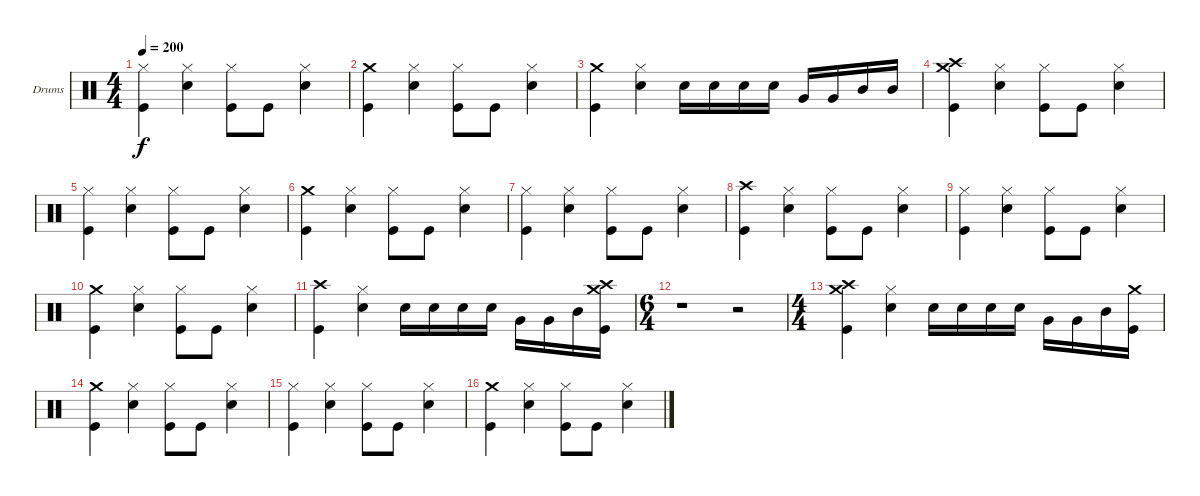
\bracketExtendMode groupsimilarinstruments
\firstSystemTrackNameOrientation horizontal
\otherSystemsTrackNameOrientation horizontal
\track ("Drumkit" "Drums") {instrument percussion}
\staff {score}
\articulation defaults
\ts (4 4)
\tempo 200
\clef neutral
\ks c
("Hi-Hat (closed)" "Kick (hit)").4{dy f} ("Hi-Hat (closed)" "Snare (hit) 2").4 ("Hi-Hat (closed)" "Kick (hit)").8 "Kick (hit)".8 ("Hi-Hat (closed)" "Snare (hit) 2").4 |
("Crash medium (hit)" "Kick (hit)").4 ("Hi-Hat (closed)" "Snare (hit) 2").4 ("Hi-Hat (closed)" "Kick (hit)").8 "Kick (hit)".8 ("Hi-Hat (closed)" "Snare (hit) 2").4 |
("Crash medium (hit)" "Kick (hit)").4 ("Hi-Hat (closed)" "Snare (hit) 2").4 "Snare (hit) 2".16 "Snare (hit) 2".16 "Snare (hit) 2".16 "Snare (hit) 2".16 "Very Low Tom (hit)".16 "Very Low Tom (hit)".16 "Mid Tom (hit)".16 "Mid Tom (hit)".16 |
("Crash high (hit)" "Crash medium (hit)" "Kick (hit)").4 ("Hi-Hat (closed)" "Snare (hit) 2").4 ("Hi-Hat (closed)" "Kick (hit)").8 "Kick (hit)".8 ("Hi-Hat (closed)" "Snare (hit) 2").4 |
("Hi-Hat (closed)" "Kick (hit)").4 ("Hi-Hat (closed)" "Snare (hit) 2").4 ("Hi-Hat (closed)" "Kick (hit)").8 "Kick (hit)".8 ("Hi-Hat (closed)" "Snare (hit) 2").4 |
("Crash medium (hit)" "Kick (hit)").4 ("Hi-Hat (closed)" "Snare (hit) 2").4 ("Hi-Hat (closed)" "Kick (hit)").8 "Kick (hit)".8 ("Hi-Hat (closed)" "Snare (hit) 2").4 |
("Hi-Hat (closed)" "Kick (hit)").4 ("Hi-Hat (closed)" "Snare (hit) 2").4 ("Hi-Hat (closed)" "Kick (hit)").8 "Kick (hit)".8 ("Hi-Hat (closed)" "Snare (hit) 2").4 |
("Crash high (hit)" "Kick (hit)").4 ("Hi-Hat (closed)" "Snare (hit) 2").4 ("Hi-Hat (closed)" "Kick (hit)").8 "Kick (hit)".8 ("Hi-Hat (closed)" "Snare (hit) 2").4 |
("Hi-Hat (closed)" "Kick (hit)").4 ("Hi-Hat (closed)" "Snare (hit) 2").4 ("Hi-Hat (closed)" "Kick (hit)").8 "Kick (hit)".8 ("Hi-Hat (closed)" "Snare (hit) 2").4 |
("Crash medium (hit)" "Kick (hit)").4 ("Hi-Hat (closed)" "Snare (hit) 2").4 ("Hi-Hat (closed)" "Kick (hit)").8 "Kick (hit)".8 ("Hi-Hat (closed)" "Snare (hit) 2").4 |
("Crash high (hit)" "Kick (hit)").4 ("Hi-Hat (closed)" "Snare (hit) 2").4 "Snare (hit) 2".16 "Snare (hit) 2".16 "Snare (hit) 2".16 "Snare (hit) 2".16 "Very Low Tom (hit)".16 "Very Low Tom (hit)".16 "Mid Tom (hit)".16 ("Crash high (hit)" "Crash medium (hit)" "Kick (hit)").16 |
\ts (6 4)
\beaming (8 6 6)
r.1 r.2 |
\ts (4 4)
\beaming (8 2 2 2 2)
("Crash high (hit)" "Crash medium (hit)" "Kick (hit)").4 ("Hi-Hat (closed)" "Snare (hit) 2").4 "Snare (hit) 2".16 "Snare (hit) 2".16 "Snare (hit) 2".16 "Snare (hit) 2".16 "Very Low Tom (hit)".16 "Very Low Tom (hit)".16 "Mid Tom (hit)".16 ("Crash medium (hit)" "Kick (hit)").16 |
("Crash medium (hit)" "Kick (hit)").4 ("Hi-Hat (closed)" "Snare (hit) 2").4 ("Hi-Hat (closed)" "Kick (hit)").8 "Kick (hit)".8 ("Hi-Hat (closed)" "Snare (hit) 2").4 |
("Hi-Hat (closed)" "Kick (hit)").4 ("Hi-Hat (closed)" "Snare (hit) 2").4 ("Hi-Hat (closed)" "Kick (hit)").8 "Kick (hit)".8 ("Hi-Hat (closed)" "Snare (hit) 2").4 |
("Crash medium (hit)" "Kick (hit)").4 ("Hi-Hat (closed)" "Snare (hit) 2").4 ("Hi-Hat (closed)" "Kick (hit)").8 "Kick (hit)".8 ("Hi-Hat (closed)" "Snare (hit) 2").4
